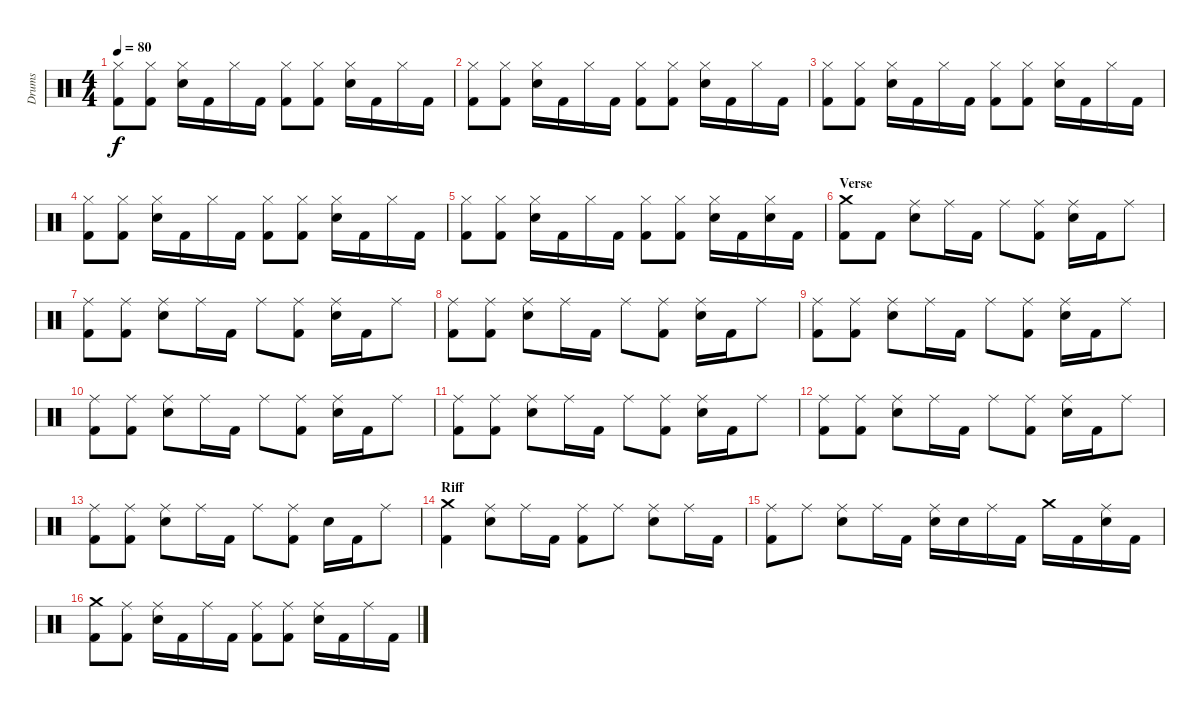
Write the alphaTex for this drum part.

\track ("Drums" "Drums") {instrument percussion}
\staff {score}
\articulation defaults
\ts (4 4)
\tempo 80
\clef neutral
\ks c
("Hi-Hat (closed)" "Kick (hit) 2").8{dy f} ("Hi-Hat (closed)" "Kick (hit) 2").8 ("Hi-Hat (closed)" "Electric Snare (hit)").16 "Kick (hit) 2".16 "Hi-Hat (closed)".16 "Kick (hit) 2".16 ("Hi-Hat (closed)" "Kick (hit) 2").8 ("Hi-Hat (closed)" "Kick (hit) 2").8 ("Hi-Hat (closed)" "Electric Snare (hit)").16 "Kick (hit) 2".16 "Hi-Hat (closed)".16 "Kick (hit) 2".16 |
("Hi-Hat (closed)" "Kick (hit) 2").8 ("Hi-Hat (closed)" "Kick (hit) 2").8 ("Hi-Hat (closed)" "Electric Snare (hit)").16 "Kick (hit) 2".16 "Hi-Hat (closed)".16 "Kick (hit) 2".16 ("Hi-Hat (closed)" "Kick (hit) 2").8 ("Hi-Hat (closed)" "Kick (hit) 2").8 ("Hi-Hat (closed)" "Electric Snare (hit)").16 "Kick (hit) 2".16 "Hi-Hat (closed)".16 "Kick (hit) 2".16 |
("Hi-Hat (closed)" "Kick (hit) 2").8 ("Hi-Hat (closed)" "Kick (hit) 2").8 ("Hi-Hat (closed)" "Electric Snare (hit)").16 "Kick (hit) 2".16 "Hi-Hat (closed)".16 "Kick (hit) 2".16 ("Hi-Hat (closed)" "Kick (hit) 2").8 ("Hi-Hat (closed)" "Kick (hit) 2").8 ("Hi-Hat (closed)" "Electric Snare (hit)").16 "Kick (hit) 2".16 "Hi-Hat (closed)".16 "Kick (hit) 2".16 |
("Hi-Hat (closed)" "Kick (hit) 2").8 ("Hi-Hat (closed)" "Kick (hit) 2").8 ("Hi-Hat (closed)" "Electric Snare (hit)").16 "Kick (hit) 2".16 "Hi-Hat (closed)".16 "Kick (hit) 2".16 ("Hi-Hat (closed)" "Kick (hit) 2").8 ("Hi-Hat (closed)" "Kick (hit) 2").8 ("Hi-Hat (closed)" "Electric Snare (hit)").16 "Kick (hit) 2".16 "Hi-Hat (closed)".16 "Kick (hit) 2".16 |
("Hi-Hat (closed)" "Kick (hit) 2").8 ("Hi-Hat (closed)" "Kick (hit) 2").8 ("Hi-Hat (closed)" "Electric Snare (hit)").16 "Kick (hit) 2".16 "Hi-Hat (closed)".16 "Kick (hit) 2".16 ("Hi-Hat (closed)" "Kick (hit) 2").8 ("Hi-Hat (closed)" "Kick (hit) 2").8 ("Hi-Hat (closed)" "Electric Snare (hit)").16 "Kick (hit) 2".16 ("Hi-Hat (closed)" "Electric Snare (hit)").16 "Kick (hit) 2".16 |
\section ("" "Verse")
("Crash medium (hit)" "Kick (hit) 2").8 "Kick (hit) 2".8 ("Ride (middle)" "Electric Snare (hit)").8 "Ride (middle)".16 "Kick (hit) 2".16 "Ride (middle)".8 ("Ride (middle)" "Kick (hit) 2").8 ("Ride (middle)" "Electric Snare (hit)").16 "Kick (hit) 2".16 "Ride (middle)".8 |
("Ride (middle)" "Kick (hit) 2").8 ("Ride (middle)" "Kick (hit) 2").8 ("Ride (middle)" "Electric Snare (hit)").8 "Ride (middle)".16 "Kick (hit) 2".16 "Ride (middle)".8 ("Ride (middle)" "Kick (hit) 2").8 ("Ride (middle)" "Electric Snare (hit)").16 "Kick (hit) 2".16 "Ride (middle)".8 |
("Ride (middle)" "Kick (hit) 2").8 ("Ride (middle)" "Kick (hit) 2").8 ("Ride (middle)" "Electric Snare (hit)").8 "Ride (middle)".16 "Kick (hit) 2".16 "Ride (middle)".8 ("Ride (middle)" "Kick (hit) 2").8 ("Ride (middle)" "Electric Snare (hit)").16 "Kick (hit) 2".16 "Ride (middle)".8 |
("Ride (middle)" "Kick (hit) 2").8 ("Ride (middle)" "Kick (hit) 2").8 ("Ride (middle)" "Electric Snare (hit)").8 "Ride (middle)".16 "Kick (hit) 2".16 "Ride (middle)".8 ("Ride (middle)" "Kick (hit) 2").8 ("Ride (middle)" "Electric Snare (hit)").16 "Kick (hit) 2".16 "Ride (middle)".8 |
("Ride (middle)" "Kick (hit) 2").8 ("Ride (middle)" "Kick (hit) 2").8 ("Ride (middle)" "Electric Snare (hit)").8 "Ride (middle)".16 "Kick (hit) 2".16 "Ride (middle)".8 ("Ride (middle)" "Kick (hit) 2").8 ("Ride (middle)" "Electric Snare (hit)").16 "Kick (hit) 2".16 "Ride (middle)".8 |
("Ride (middle)" "Kick (hit) 2").8 ("Ride (middle)" "Kick (hit) 2").8 ("Ride (middle)" "Electric Snare (hit)").8 "Ride (middle)".16 "Kick (hit) 2".16 "Ride (middle)".8 ("Ride (middle)" "Kick (hit) 2").8 ("Ride (middle)" "Electric Snare (hit)").16 "Kick (hit) 2".16 "Ride (middle)".8 |
("Ride (middle)" "Kick (hit) 2").8 ("Ride (middle)" "Kick (hit) 2").8 ("Ride (middle)" "Electric Snare (hit)").8 "Ride (middle)".16 "Kick (hit) 2".16 "Ride (middle)".8 ("Ride (middle)" "Kick (hit) 2").8 ("Ride (middle)" "Electric Snare (hit)").16 "Kick (hit) 2".16 "Ride (middle)".8 |
("Ride (middle)" "Kick (hit) 2").8 ("Ride (middle)" "Kick (hit) 2").8 ("Ride (middle)" "Electric Snare (hit)").8 "Ride (middle)".16 "Kick (hit) 2".16 "Ride (middle)".8 ("Ride (middle)" "Kick (hit) 2").8 "Electric Snare (hit)".16 "Kick (hit) 2".16 "Ride (middle)".8 |
\section ("" "Riff")
("Crash medium (hit)" "Kick (hit) 2").4 ("Ride (middle)" "Electric Snare (hit)").8 "Ride (middle)".16 "Kick (hit) 2".16 ("Ride (middle)" "Kick (hit) 2").8 "Ride (middle)".8 ("Ride (middle)" "Electric Snare (hit)").8 "Ride (middle)".16 "Kick (hit) 2".16 |
("Ride (middle)" "Kick (hit) 2").8 "Ride (middle)".8 ("Ride (middle)" "Electric Snare (hit)").8 "Ride (middle)".16 "Kick (hit) 2".16 ("Ride (middle)" "Electric Snare (hit)").16 "Electric Snare (hit)".16 "Ride (middle)".16 "Kick (hit) 2".16 "Crash medium (hit)".16 "Kick (hit) 2".16 ("Ride (middle)" "Electric Snare (hit)").16 "Kick (hit) 2".16 |
("Crash medium (hit)" "Kick (hit) 2").8 ("Ride (middle)" "Kick (hit) 2").8 ("Ride (middle)" "Electric Snare (hit)").16 "Kick (hit) 2".16 "Ride (middle)".16 "Kick (hit) 2".16 ("Ride (middle)" "Kick (hit) 2").8 ("Ride (middle)" "Kick (hit) 2").8 ("Ride (middle)" "Electric Snare (hit)").16 "Kick (hit) 2".16 "Ride (middle)".16 "Kick (hit) 2".16
